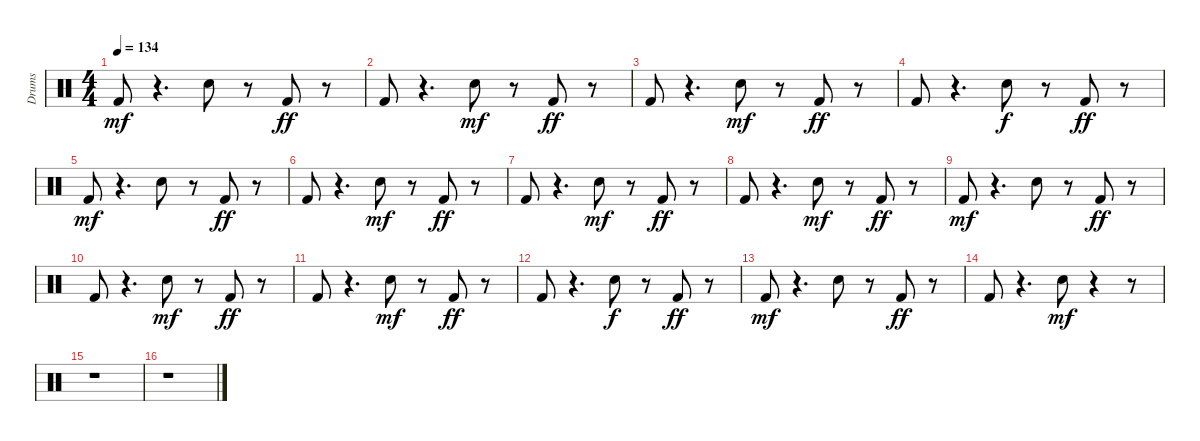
\track ("Drums" "Drums") {instrument percussion}
\staff {score}
\articulation defaults
\ts (4 4)
\tempo 134
\clef neutral
\ks c "Kick (hit) 2".8{dy mf}
r.4{d} "Electric Snare (hit)".8 r.8 "Kick (hit) 2".8{dy ff} r.8 |
"Kick (hit) 2".8 r.4{d} "Electric Snare (hit)".8{dy mf} r.8 "Kick (hit) 2".8{dy ff} r.8 |
"Kick (hit) 2".8 r.4{d} "Electric Snare (hit)".8{dy mf} r.8 "Kick (hit) 2".8{dy ff} r.8 |
"Kick (hit) 2".8 r.4{d} "Electric Snare (hit)".8{dy f} r.8 "Kick (hit) 2".8{dy ff} r.8 |
"Kick (hit) 2".8{dy mf} r.4{d} "Electric Snare (hit)".8 r.8 "Kick (hit) 2".8{dy ff} r.8 |
"Kick (hit) 2".8 r.4{d} "Electric Snare (hit)".8{dy mf} r.8 "Kick (hit) 2".8{dy ff} r.8 |
"Kick (hit) 2".8 r.4{d} "Electric Snare (hit)".8{dy mf} r.8 "Kick (hit) 2".8{dy ff} r.8 |
"Kick (hit) 2".8 r.4{d} "Electric Snare (hit)".8{dy mf} r.8 "Kick (hit) 2".8{dy ff} r.8 |
"Kick (hit) 2".8{dy mf} r.4{d} "Electric Snare (hit)".8 r.8 "Kick (hit) 2".8{dy ff} r.8 |
"Kick (hit) 2".8 r.4{d} "Electric Snare (hit)".8{dy mf} r.8 "Kick (hit) 2".8{dy ff} r.8 |
"Kick (hit) 2".8 r.4{d} "Electric Snare (hit)".8{dy mf} r.8 "Kick (hit) 2".8{dy ff} r.8 |
"Kick (hit) 2".8 r.4{d} "Electric Snare (hit)".8{dy f} r.8 "Kick (hit) 2".8{dy ff} r.8 |
"Kick (hit) 2".8{dy mf} r.4{d} "Electric Snare (hit)".8 r.8 "Kick (hit) 2".8{dy ff} r.8 |
"Kick (hit) 2".8 r.4{d} "Electric Snare (hit)".8{dy mf} r.4 r.8 |
r.1 |
r.1
